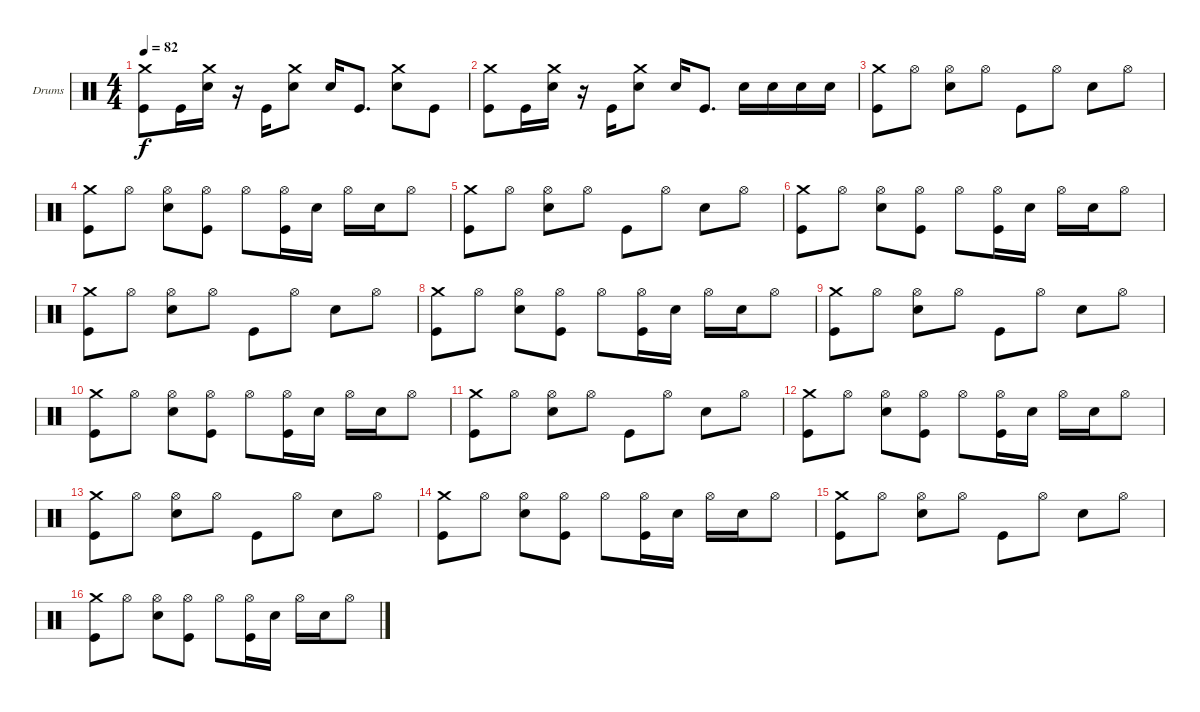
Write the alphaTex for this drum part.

\bracketExtendMode groupsimilarinstruments
\firstSystemTrackNameOrientation horizontal
\otherSystemsTrackNameOrientation horizontal
\track ("Drumkit" "Drums") {instrument percussion}
\staff {score}
\articulation defaults
\ts (4 4)
\tempo 82
\clef neutral
\ks c
("Crash medium (hit)" "Kick (hit)").8{dy f} "Kick (hit)".16 ("Crash medium (hit)" "Snare (hit) 2").16 r.16 "Kick (hit)".16 ("Crash medium (hit)" "Snare (hit) 2").8 "Snare (hit) 2".16 "Kick (hit)".8{d} ("Crash medium (hit)" "Snare (hit) 2").8 "Kick (hit)".8 |
("Crash medium (hit)" "Kick (hit)").8 "Kick (hit)".16 ("Crash medium (hit)" "Snare (hit) 2").16 r.16 "Kick (hit)".16 ("Crash medium (hit)" "Snare (hit) 2").8 "Snare (hit) 2".16 "Kick (hit)".8{d} "Snare (hit) 2".16 "Snare (hit) 2".16 "Snare (hit) 2".16 "Snare (hit) 2".16 |
("Crash medium (hit)" "Kick (hit)").8 "Hi-Hat (open)".8 ("Hi-Hat (open)" "Snare (hit) 2").8 "Hi-Hat (open)".8 "Kick (hit)".8 "Hi-Hat (open)".8 "Snare (hit) 2".8 "Hi-Hat (open)".8 |
("Crash medium (hit)" "Kick (hit)").8 "Hi-Hat (open)".8 ("Hi-Hat (open)" "Snare (hit) 2").8 ("Hi-Hat (open)" "Kick (hit)").8 "Hi-Hat (open)".8 ("Hi-Hat (open)" "Kick (hit)").16 "Snare (hit) 2".16 "Hi-Hat (open)".16 "Snare (hit) 2".16 "Hi-Hat (open)".8 |
("Crash medium (hit)" "Kick (hit)").8 "Hi-Hat (open)".8 ("Hi-Hat (open)" "Snare (hit) 2").8 "Hi-Hat (open)".8 "Kick (hit)".8 "Hi-Hat (open)".8 "Snare (hit) 2".8 "Hi-Hat (open)".8 |
("Crash medium (hit)" "Kick (hit)").8 "Hi-Hat (open)".8 ("Hi-Hat (open)" "Snare (hit) 2").8 ("Hi-Hat (open)" "Kick (hit)").8 "Hi-Hat (open)".8 ("Hi-Hat (open)" "Kick (hit)").16 "Snare (hit) 2".16 "Hi-Hat (open)".16 "Snare (hit) 2".16 "Hi-Hat (open)".8 |
("Crash medium (hit)" "Kick (hit)").8 "Hi-Hat (open)".8 ("Hi-Hat (open)" "Snare (hit) 2").8 "Hi-Hat (open)".8 "Kick (hit)".8 "Hi-Hat (open)".8 "Snare (hit) 2".8 "Hi-Hat (open)".8 |
("Crash medium (hit)" "Kick (hit)").8 "Hi-Hat (open)".8 ("Hi-Hat (open)" "Snare (hit) 2").8 ("Hi-Hat (open)" "Kick (hit)").8 "Hi-Hat (open)".8 ("Hi-Hat (open)" "Kick (hit)").16 "Snare (hit) 2".16 "Hi-Hat (open)".16 "Snare (hit) 2".16 "Hi-Hat (open)".8 |
("Crash medium (hit)" "Kick (hit)").8 "Hi-Hat (open)".8 ("Hi-Hat (open)" "Snare (hit) 2").8 "Hi-Hat (open)".8 "Kick (hit)".8 "Hi-Hat (open)".8 "Snare (hit) 2".8 "Hi-Hat (open)".8 |
("Crash medium (hit)" "Kick (hit)").8 "Hi-Hat (open)".8 ("Hi-Hat (open)" "Snare (hit) 2").8 ("Hi-Hat (open)" "Kick (hit)").8 "Hi-Hat (open)".8 ("Hi-Hat (open)" "Kick (hit)").16 "Snare (hit) 2".16 "Hi-Hat (open)".16 "Snare (hit) 2".16 "Hi-Hat (open)".8 |
("Crash medium (hit)" "Kick (hit)").8 "Hi-Hat (open)".8 ("Hi-Hat (open)" "Snare (hit) 2").8 "Hi-Hat (open)".8 "Kick (hit)".8 "Hi-Hat (open)".8 "Snare (hit) 2".8 "Hi-Hat (open)".8 |
("Crash medium (hit)" "Kick (hit)").8 "Hi-Hat (open)".8 ("Hi-Hat (open)" "Snare (hit) 2").8 ("Hi-Hat (open)" "Kick (hit)").8 "Hi-Hat (open)".8 ("Hi-Hat (open)" "Kick (hit)").16 "Snare (hit) 2".16 "Hi-Hat (open)".16 "Snare (hit) 2".16 "Hi-Hat (open)".8 |
("Crash medium (hit)" "Kick (hit)").8 "Hi-Hat (open)".8 ("Hi-Hat (open)" "Snare (hit) 2").8 "Hi-Hat (open)".8 "Kick (hit)".8 "Hi-Hat (open)".8 "Snare (hit) 2".8 "Hi-Hat (open)".8 |
("Crash medium (hit)" "Kick (hit)").8 "Hi-Hat (open)".8 ("Hi-Hat (open)" "Snare (hit) 2").8 ("Hi-Hat (open)" "Kick (hit)").8 "Hi-Hat (open)".8 ("Hi-Hat (open)" "Kick (hit)").16 "Snare (hit) 2".16 "Hi-Hat (open)".16 "Snare (hit) 2".16 "Hi-Hat (open)".8 |
("Crash medium (hit)" "Kick (hit)").8 "Hi-Hat (open)".8 ("Hi-Hat (open)" "Snare (hit) 2").8 "Hi-Hat (open)".8 "Kick (hit)".8 "Hi-Hat (open)".8 "Snare (hit) 2".8 "Hi-Hat (open)".8 |
("Crash medium (hit)" "Kick (hit)").8 "Hi-Hat (open)".8 ("Hi-Hat (open)" "Snare (hit) 2").8 ("Hi-Hat (open)" "Kick (hit)").8 "Hi-Hat (open)".8 ("Hi-Hat (open)" "Kick (hit)").16 "Snare (hit) 2".16 "Hi-Hat (open)".16 "Snare (hit) 2".16 "Hi-Hat (open)".8
